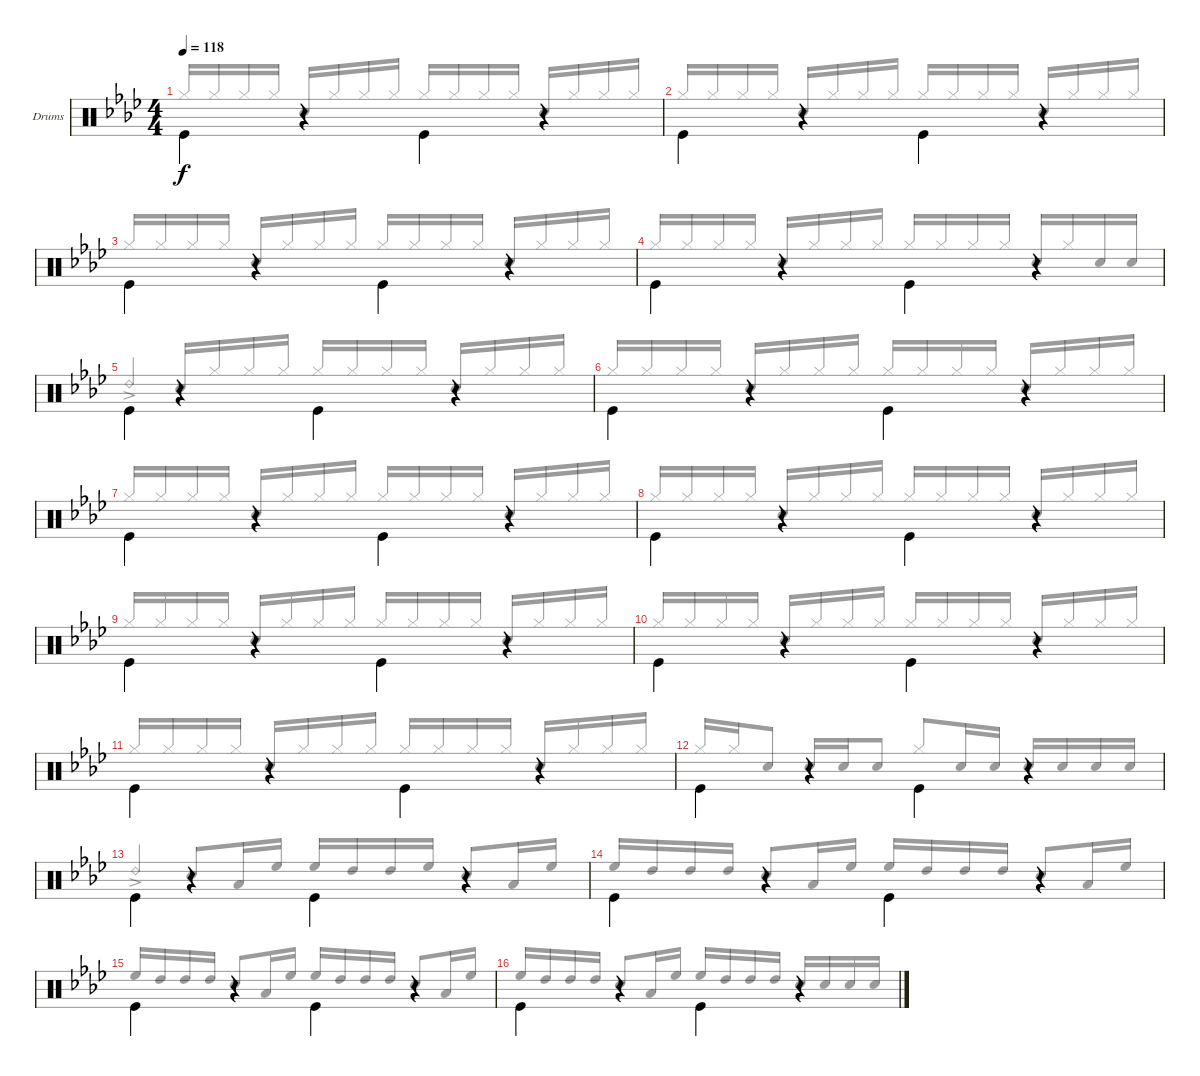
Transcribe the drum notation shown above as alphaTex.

\bracketExtendMode groupsimilarinstruments
\firstSystemTrackNameOrientation horizontal
\otherSystemsTrackNameOrientation horizontal
\track ("Drums" "Drums") {instrument percussion}
\staff {score}
\articulation defaults
\voice
\ts (4 4)
\tempo 118
\clef neutral
\scale
0.5
\ks ab "Kick (hit)".4{dy f beam invert}
r.4{beam invert} "Kick (hit)".4{beam invert} r.4{beam invert} |
\scale
0.5 "Kick (hit)".4{beam invert} r.4{beam invert} "Kick (hit)".4{beam invert} r.4{beam invert} |
\scale
0.5 "Kick (hit)".4{beam invert} r.4{beam invert} "Kick (hit)".4{beam invert} r.4{beam invert} |
\scale
0.5 "Kick (hit)".4{beam invert} r.4{beam invert} "Kick (hit)".4{beam invert} r.4{beam invert} |
\scale
0.5 "Kick (hit)".4{beam invert} r.4{beam invert} "Kick (hit)".4{beam invert} r.4{beam invert} |
\scale
0.5 "Kick (hit)".4{beam invert} r.4{beam invert} "Kick (hit)".4{beam invert} r.4{beam invert} |
\scale
0.5 "Kick (hit)".4{beam invert} r.4{beam invert} "Kick (hit)".4{beam invert} r.4{beam invert} |
\scale
0.5 "Kick (hit)".4{beam invert} r.4{beam invert} "Kick (hit)".4{beam invert} r.4{beam invert} |
\scale
0.5 "Kick (hit)".4{beam invert} r.4{beam invert} "Kick (hit)".4{beam invert} r.4{beam invert} |
\scale
0.5 "Kick (hit)".4{beam invert} r.4{beam invert} "Kick (hit)".4{beam invert} r.4{beam invert} |
\scale
0.5 "Kick (hit)".4{beam invert} r.4{beam invert} "Kick (hit)".4{beam invert} r.4{beam invert} |
\scale
0.5 "Kick (hit)".4{beam invert} r.4{beam invert} "Kick (hit)".4{beam invert} r.4{beam invert} |
\scale
0.5 "Kick (hit)".4{beam invert} r.4{beam invert} "Kick (hit)".4{beam invert} r.4{beam invert} |
\scale
0.5 "Kick (hit)".4{beam invert} r.4{beam invert} "Kick (hit)".4{beam invert} r.4{beam invert} |
\scale
0.5 "Kick (hit)".4{beam invert} r.4{beam invert} "Kick (hit)".4{beam invert} r.4{beam invert} |
\scale
0.5 "Kick (hit)".4{beam invert} r.4{beam invert} "Kick (hit)".4{beam invert} r.4{beam invert}
\voice
\clef neutral
\ottava regular
\simile none
\scale
0.5
\ks ab "Hi-Hat (closed)".16{dy f beam invert beam merge} "Hi-Hat (closed)".16{beam merge} "Hi-Hat (closed)".16{beam merge} "Hi-Hat (closed)".16{beam split} "Snare (hit) 2".16{beam invert beam merge} "Hi-Hat (closed)".16{beam merge} "Hi-Hat (closed)".16{beam merge} "Hi-Hat (closed)".16{beam split} "Hi-Hat (closed)".16{beam invert beam merge} "Hi-Hat (closed)".16{beam merge} "Hi-Hat (closed)".16{beam merge} "Hi-Hat (closed)".16{beam split} "Snare (hit) 2".16{beam invert beam merge} "Hi-Hat (closed)".16{beam merge} "Hi-Hat (closed)".16{beam merge} "Hi-Hat (closed)".16{beam split}
|
\scale
0.5 "Hi-Hat (closed)".16{beam invert beam merge} "Hi-Hat (closed)".16{beam merge} "Hi-Hat (closed)".16{beam merge} "Hi-Hat (closed)".16{beam split} "Snare (hit) 2".16{beam invert beam merge} "Hi-Hat (closed)".16{beam merge} "Hi-Hat (closed)".16{beam merge} "Hi-Hat (closed)".16{beam split} "Hi-Hat (closed)".16{beam invert beam merge} "Hi-Hat (closed)".16{beam merge} "Hi-Hat (closed)".16{beam merge} "Hi-Hat (closed)".16{beam split} "Snare (hit) 2".16{beam invert beam merge} "Hi-Hat (closed)".16{beam merge} "Hi-Hat (closed)".16{beam merge} "Hi-Hat (closed)".16{beam split} |
\scale
0.5 "Hi-Hat (closed)".16{beam invert beam merge} "Hi-Hat (closed)".16{beam merge} "Hi-Hat (closed)".16{beam merge} "Hi-Hat (closed)".16{beam split} "Snare (hit) 2".16{beam invert beam merge} "Hi-Hat (closed)".16{beam merge} "Hi-Hat (closed)".16{beam merge} "Hi-Hat (closed)".16{beam split} "Hi-Hat (closed)".16{beam invert beam merge} "Hi-Hat (closed)".16{beam merge} "Hi-Hat (closed)".16{beam merge} "Hi-Hat (closed)".16{beam split} "Snare (hit) 2".16{beam invert beam merge} "Hi-Hat (closed)".16{beam merge} "Hi-Hat (closed)".16{beam merge} "Hi-Hat (closed)".16{beam split} |
\scale
0.5 "Hi-Hat (closed)".16{beam invert beam merge} "Hi-Hat (closed)".16{beam merge} "Hi-Hat (closed)".16{beam merge} "Hi-Hat (closed)".16{beam split} "Snare (hit) 2".16{beam invert beam merge} "Hi-Hat (closed)".16{beam merge} "Hi-Hat (closed)".16{beam merge} "Hi-Hat (closed)".16{beam split} "Hi-Hat (closed)".16{beam invert beam merge} "Hi-Hat (closed)".16{beam merge} "Hi-Hat (closed)".16{beam merge} "Hi-Hat (closed)".16{beam split} "Snare (hit) 2".16{beam invert} "Hi-Hat (closed)".16 "Snare (hit) 2".16{beam invert} "Snare (hit) 2".16{beam invert} |
\scale
0.5 "Ride (bell) 2"{ac}.4{beam invert} "Snare (hit) 2".16{beam invert beam merge} "Hi-Hat (closed)".16{beam merge} "Hi-Hat (closed)".16{beam merge} "Hi-Hat (closed)".16{beam split} "Hi-Hat (closed)".16{beam invert beam merge} "Hi-Hat (closed)".16{beam merge} "Hi-Hat (closed)".16{beam merge} "Hi-Hat (closed)".16{beam split} "Snare (hit) 2".16{beam invert beam merge} "Hi-Hat (closed)".16{beam merge} "Hi-Hat (closed)".16{beam merge} "Hi-Hat (closed)".16{beam split} |
\scale
0.5 "Hi-Hat (closed)".16{beam invert beam merge} "Hi-Hat (closed)".16{beam merge} "Hi-Hat (closed)".16{beam merge} "Hi-Hat (closed)".16{beam split} "Snare (hit) 2".16{beam invert beam merge} "Hi-Hat (closed)".16{beam merge} "Hi-Hat (closed)".16{beam merge} "Hi-Hat (closed)".16{beam split} "Hi-Hat (closed)".16{beam invert beam merge} "Hi-Hat (closed)".16{beam merge} "Hi-Hat (closed)".16{beam merge} "Hi-Hat (closed)".16{beam split} "Snare (hit) 2".16{beam invert beam merge} "Hi-Hat (closed)".16{beam merge} "Hi-Hat (closed)".16{beam merge} "Hi-Hat (closed)".16{beam split} |
\scale
0.5 "Hi-Hat (closed)".16{beam invert beam merge} "Hi-Hat (closed)".16{beam merge} "Hi-Hat (closed)".16{beam merge} "Hi-Hat (closed)".16{beam split} "Snare (hit) 2".16{beam invert beam merge} "Hi-Hat (closed)".16{beam merge} "Hi-Hat (closed)".16{beam merge} "Hi-Hat (closed)".16{beam split} "Hi-Hat (closed)".16{beam invert beam merge} "Hi-Hat (closed)".16{beam merge} "Hi-Hat (closed)".16{beam merge} "Hi-Hat (closed)".16{beam split} "Snare (hit) 2".16{beam invert beam merge} "Hi-Hat (closed)".16{beam merge} "Hi-Hat (closed)".16{beam merge} "Hi-Hat (closed)".16{beam split} |
\scale
0.5 "Hi-Hat (closed)".16{beam invert beam merge} "Hi-Hat (closed)".16{beam merge} "Hi-Hat (closed)".16{beam merge} "Hi-Hat (closed)".16{beam split} "Snare (hit) 2".16{beam invert beam merge} "Hi-Hat (closed)".16{beam merge} "Hi-Hat (closed)".16{beam merge} "Hi-Hat (closed)".16{beam split} "Hi-Hat (closed)".16{beam invert beam merge} "Hi-Hat (closed)".16{beam merge} "Hi-Hat (closed)".16{beam merge} "Hi-Hat (closed)".16{beam split} "Snare (hit) 2".16{beam invert beam merge} "Hi-Hat (closed)".16{beam merge} "Hi-Hat (closed)".16{beam merge} "Hi-Hat (closed)".16{beam split} |
\scale
0.5 "Hi-Hat (closed)".16{beam invert beam merge} "Hi-Hat (closed)".16{beam merge} "Hi-Hat (closed)".16{beam merge} "Hi-Hat (closed)".16{beam split} "Snare (hit) 2".16{beam invert beam merge} "Hi-Hat (closed)".16{beam merge} "Hi-Hat (closed)".16{beam merge} "Hi-Hat (closed)".16{beam split} "Hi-Hat (closed)".16{beam invert beam merge} "Hi-Hat (closed)".16{beam merge} "Hi-Hat (closed)".16{beam merge} "Hi-Hat (closed)".16{beam split} "Snare (hit) 2".16{beam invert beam merge} "Hi-Hat (closed)".16{beam merge} "Hi-Hat (closed)".16{beam merge} "Hi-Hat (closed)".16{beam split} |
\scale
0.5 "Hi-Hat (closed)".16{beam invert beam merge} "Hi-Hat (closed)".16{beam merge} "Hi-Hat (closed)".16{beam merge} "Hi-Hat (closed)".16{beam split} "Snare (hit) 2".16{beam invert beam merge} "Hi-Hat (closed)".16{beam merge} "Hi-Hat (closed)".16{beam merge} "Hi-Hat (closed)".16{beam split} "Hi-Hat (closed)".16{beam invert beam merge} "Hi-Hat (closed)".16{beam merge} "Hi-Hat (closed)".16{beam merge} "Hi-Hat (closed)".16{beam split} "Snare (hit) 2".16{beam invert beam merge} "Hi-Hat (closed)".16{beam merge} "Hi-Hat (closed)".16{beam merge} "Hi-Hat (closed)".16{beam split} |
\scale
0.5 "Hi-Hat (closed)".16{beam invert beam merge} "Hi-Hat (closed)".16{beam merge} "Hi-Hat (closed)".16{beam merge} "Hi-Hat (closed)".16{beam split} "Snare (hit) 2".16{beam invert beam merge} "Hi-Hat (closed)".16{beam merge} "Hi-Hat (closed)".16{beam merge} "Hi-Hat (closed)".16{beam split} "Hi-Hat (closed)".16{beam invert beam merge} "Hi-Hat (closed)".16{beam merge} "Hi-Hat (closed)".16{beam merge} "Hi-Hat (closed)".16{beam split} "Snare (hit) 2".16{beam invert beam merge} "Hi-Hat (closed)".16{beam merge} "Hi-Hat (closed)".16{beam merge} "Hi-Hat (closed)".16{beam split} |
\scale
0.5 "Hi-Hat (closed)".16{beam invert beam merge} "Hi-Hat (closed)".16{beam merge} "Snare (hit) 2".8{beam split} "Snare (hit) 2".16{beam invert beam merge} "Snare (hit) 2".16{beam invert beam merge} "Snare (hit) 2".8{beam invert beam split} "Hi-Hat (closed)".8{beam invert beam merge} "Snare (hit) 2".16{beam merge} "Snare (hit) 2".16{beam split} "Snare (hit) 2".16{beam invert beam merge} "Snare (hit) 2".16{beam merge} "Snare (hit) 2".16{beam merge} "Snare (hit) 2".16{beam merge} |
\scale
0.5 "Ride (bell) 2"{ac}.4{beam invert} "Snare (hit) 2".8{beam invert} "Low Tom (hit)".16 "High Floor Tom (hit)".16 "High Floor Tom (hit)".16{beam invert} "High Tom (hit)".16 "High Tom (hit)".16 "High Floor Tom (hit)".16 "Snare (hit) 2".8{beam invert} "Low Tom (hit)".16 "High Floor Tom (hit)".16 |
\scale
0.5 "High Floor Tom (hit)".16{beam invert} "High Tom (hit)".16 "High Tom (hit)".16 "High Tom (hit)".16 "Snare (hit) 2".8{beam invert} "Low Tom (hit)".16 "High Floor Tom (hit)".16 "High Floor Tom (hit)".16{beam invert} "High Tom (hit)".16 "High Tom (hit)".16 "High Tom (hit)".16 "Snare (hit) 2".8{beam invert} "Low Tom (hit)".16 "High Floor Tom (hit)".16 |
\scale
0.5 "High Floor Tom (hit)".16{beam invert} "High Tom (hit)".16 "High Tom (hit)".16 "High Tom (hit)".16 "Snare (hit) 2".8{beam invert} "Low Tom (hit)".16 "High Floor Tom (hit)".16 "High Floor Tom (hit)".16{beam invert} "High Tom (hit)".16 "High Tom (hit)".16 "High Tom (hit)".16 "Snare (hit) 2".8{beam invert} "Low Tom (hit)".16 "High Floor Tom (hit)".16 |
\scale
0.5 "High Floor Tom (hit)".16{beam invert} "High Tom (hit)".16 "High Tom (hit)".16 "High Tom (hit)".16 "Snare (hit) 2".8{beam invert} "Low Tom (hit)".16 "High Floor Tom (hit)".16 "High Floor Tom (hit)".16{beam invert} "High Tom (hit)".16 "High Tom (hit)".16 "High Tom (hit)".16 "Snare (hit) 2".16{beam invert beam merge} "Snare (hit) 2".16{beam merge} "Snare (hit) 2".16{beam merge} "Snare (hit) 2".16{beam merge}
